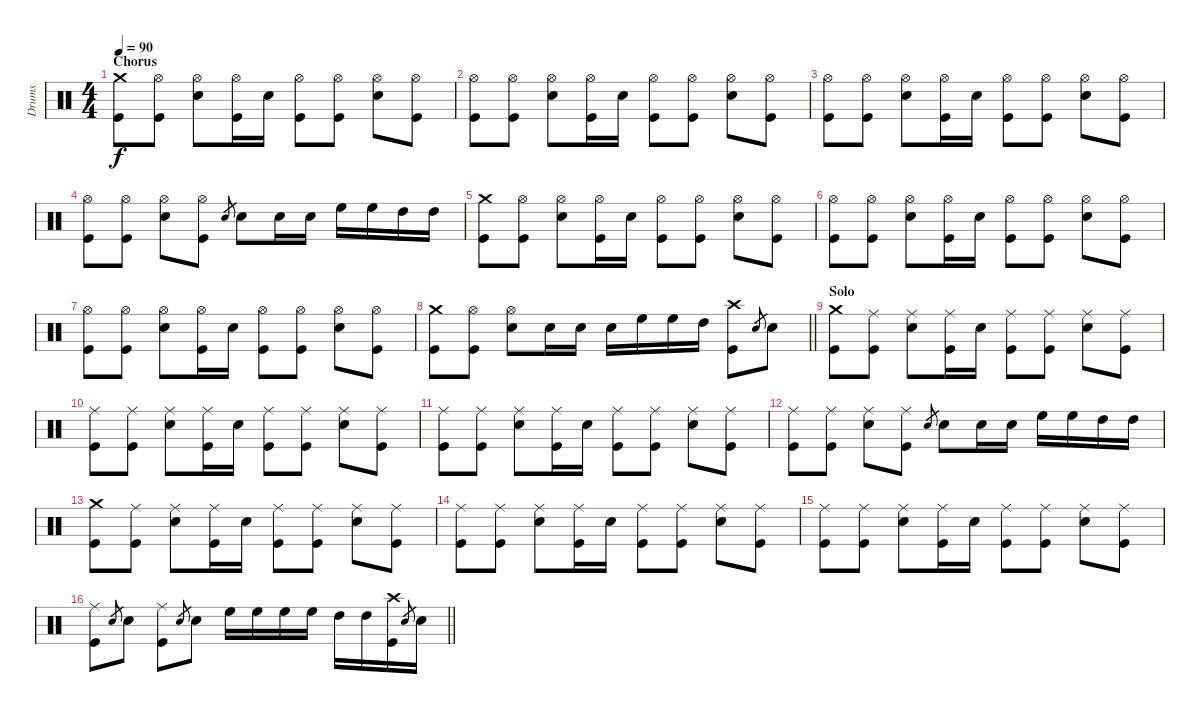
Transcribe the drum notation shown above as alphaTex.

\track ("Drums" "Drums") {instrument percussion}
\staff {score}
\articulation defaults
\ts (4 4)
\section ("" "Chorus")
\tempo 90
\clef neutral
\ks c
("Kick (hit)" "Crash medium (hit)").8{dy f} ("Kick (hit)" "Hi-Hat (open)").8 ("Snare (hit) 2" "Hi-Hat (open)").8 ("Hi-Hat (open)" "Kick (hit)").16 "Snare (hit) 2".16 ("Kick (hit)" "Hi-Hat (open)").8 ("Kick (hit)" "Hi-Hat (open)").8 ("Snare (hit) 2" "Hi-Hat (open)").8 ("Kick (hit)" "Hi-Hat (open)").8 |
("Kick (hit)" "Hi-Hat (open)").8 ("Kick (hit)" "Hi-Hat (open)").8 ("Snare (hit) 2" "Hi-Hat (open)").8 ("Hi-Hat (open)" "Kick (hit)").16 "Snare (hit) 2".16 ("Kick (hit)" "Hi-Hat (open)").8 ("Kick (hit)" "Hi-Hat (open)").8 ("Snare (hit) 2" "Hi-Hat (open)").8 ("Kick (hit)" "Hi-Hat (open)").8 |
("Kick (hit)" "Hi-Hat (open)").8 ("Kick (hit)" "Hi-Hat (open)").8 ("Snare (hit) 2" "Hi-Hat (open)").8 ("Hi-Hat (open)" "Kick (hit)").16 "Snare (hit) 2".16 ("Kick (hit)" "Hi-Hat (open)").8 ("Kick (hit)" "Hi-Hat (open)").8 ("Snare (hit) 2" "Hi-Hat (open)").8 ("Kick (hit)" "Hi-Hat (open)").8 |
("Kick (hit)" "Hi-Hat (open)").8 ("Kick (hit)" "Hi-Hat (open)").8 ("Snare (hit) 2" "Hi-Hat (open)").8 ("Kick (hit)" "Hi-Hat (open)").8 "Snare (hit) 2".8{gr} "Snare (hit) 2".8 "Snare (hit) 2".16 "Snare (hit) 2".16 "High Floor Tom (hit)".16 "High Floor Tom (hit)".16 "High Tom (hit)".16 "High Tom (hit)".16 |
("Kick (hit)" "Crash medium (hit)").8 ("Kick (hit)" "Hi-Hat (open)").8 ("Snare (hit) 2" "Hi-Hat (open)").8 ("Hi-Hat (open)" "Kick (hit)").16 "Snare (hit) 2".16 ("Kick (hit)" "Hi-Hat (open)").8 ("Kick (hit)" "Hi-Hat (open)").8 ("Snare (hit) 2" "Hi-Hat (open)").8 ("Kick (hit)" "Hi-Hat (open)").8 |
("Kick (hit)" "Hi-Hat (open)").8 ("Kick (hit)" "Hi-Hat (open)").8 ("Snare (hit) 2" "Hi-Hat (open)").8 ("Hi-Hat (open)" "Kick (hit)").16 "Snare (hit) 2".16 ("Kick (hit)" "Hi-Hat (open)").8 ("Kick (hit)" "Hi-Hat (open)").8 ("Snare (hit) 2" "Hi-Hat (open)").8 ("Kick (hit)" "Hi-Hat (open)").8 |
("Kick (hit)" "Hi-Hat (open)").8 ("Kick (hit)" "Hi-Hat (open)").8 ("Snare (hit) 2" "Hi-Hat (open)").8 ("Hi-Hat (open)" "Kick (hit)").16 "Snare (hit) 2".16 ("Kick (hit)" "Hi-Hat (open)").8 ("Kick (hit)" "Hi-Hat (open)").8 ("Snare (hit) 2" "Hi-Hat (open)").8 ("Kick (hit)" "Hi-Hat (open)").8 |
\barLineRight lightlight
("Kick (hit)" "Crash medium (hit)").8 ("Kick (hit)" "Hi-Hat (open)").8 ("Snare (hit) 2" "Hi-Hat (open)").8 "Snare (hit) 2".16 "Snare (hit) 2".16 "Snare (hit) 2".16 "High Floor Tom (hit)".16 "High Floor Tom (hit)".16 "High Tom (hit)".16 ("Kick (hit)" "Crash high (hit)").8 "Snare (hit) 2".8{gr} "Snare (hit) 2".8 |
\section ("" "Solo")
("Kick (hit)" "Crash medium (hit)").8 ("Kick (hit)" "Ride (middle)").8 ("Snare (hit) 2" "Ride (middle)").8 ("Ride (middle)" "Kick (hit)").16 "Snare (hit) 2".16 ("Kick (hit)" "Ride (middle)").8 ("Kick (hit)" "Ride (middle)").8 ("Snare (hit) 2" "Ride (middle)").8 ("Kick (hit)" "Ride (middle)").8 |
("Kick (hit)" "Ride (middle)").8 ("Kick (hit)" "Ride (middle)").8 ("Snare (hit) 2" "Ride (middle)").8 ("Ride (middle)" "Kick (hit)").16 "Snare (hit) 2".16 ("Kick (hit)" "Ride (middle)").8 ("Kick (hit)" "Ride (middle)").8 ("Snare (hit) 2" "Ride (middle)").8 ("Kick (hit)" "Ride (middle)").8 |
("Kick (hit)" "Ride (middle)").8 ("Kick (hit)" "Ride (middle)").8 ("Snare (hit) 2" "Ride (middle)").8 ("Ride (middle)" "Kick (hit)").16 "Snare (hit) 2".16 ("Kick (hit)" "Ride (middle)").8 ("Kick (hit)" "Ride (middle)").8 ("Snare (hit) 2" "Ride (middle)").8 ("Kick (hit)" "Ride (middle)").8 |
("Kick (hit)" "Ride (middle)").8 ("Kick (hit)" "Ride (middle)").8 ("Snare (hit) 2" "Ride (middle)").8 ("Kick (hit)" "Ride (middle)").8 "Snare (hit) 2".8{gr} "Snare (hit) 2".8 "Snare (hit) 2".16 "Snare (hit) 2".16 "High Floor Tom (hit)".16 "High Floor Tom (hit)".16 "High Tom (hit)".16 "High Tom (hit)".16 |
("Kick (hit)" "Crash medium (hit)").8 ("Kick (hit)" "Ride (middle)").8 ("Snare (hit) 2" "Ride (middle)").8 ("Ride (middle)" "Kick (hit)").16 "Snare (hit) 2".16 ("Kick (hit)" "Ride (middle)").8 ("Kick (hit)" "Ride (middle)").8 ("Snare (hit) 2" "Ride (middle)").8 ("Kick (hit)" "Ride (middle)").8 |
("Kick (hit)" "Ride (middle)").8 ("Kick (hit)" "Ride (middle)").8 ("Snare (hit) 2" "Ride (middle)").8 ("Ride (middle)" "Kick (hit)").16 "Snare (hit) 2".16 ("Kick (hit)" "Ride (middle)").8 ("Kick (hit)" "Ride (middle)").8 ("Snare (hit) 2" "Ride (middle)").8 ("Kick (hit)" "Ride (middle)").8 |
("Kick (hit)" "Ride (middle)").8 ("Kick (hit)" "Ride (middle)").8 ("Snare (hit) 2" "Ride (middle)").8 ("Ride (middle)" "Kick (hit)").16 "Snare (hit) 2".16 ("Kick (hit)" "Ride (middle)").8 ("Kick (hit)" "Ride (middle)").8 ("Snare (hit) 2" "Ride (middle)").8 ("Kick (hit)" "Ride (middle)").8 |
\barLineRight lightlight
("Kick (hit)" "Ride (middle)").8 "Snare (hit) 2".8{gr} "Snare (hit) 2".8 ("Kick (hit)" "Ride (middle)").8 "Snare (hit) 2".8{gr} "Snare (hit) 2".8 "High Floor Tom (hit)".16 "High Floor Tom (hit)".16 "High Floor Tom (hit)".16 "High Floor Tom (hit)".16 "High Tom (hit)".16 "High Tom (hit)".16 ("Kick (hit)" "Crash high (hit)").16 "Snare (hit) 2".8{gr} "Snare (hit) 2".16
